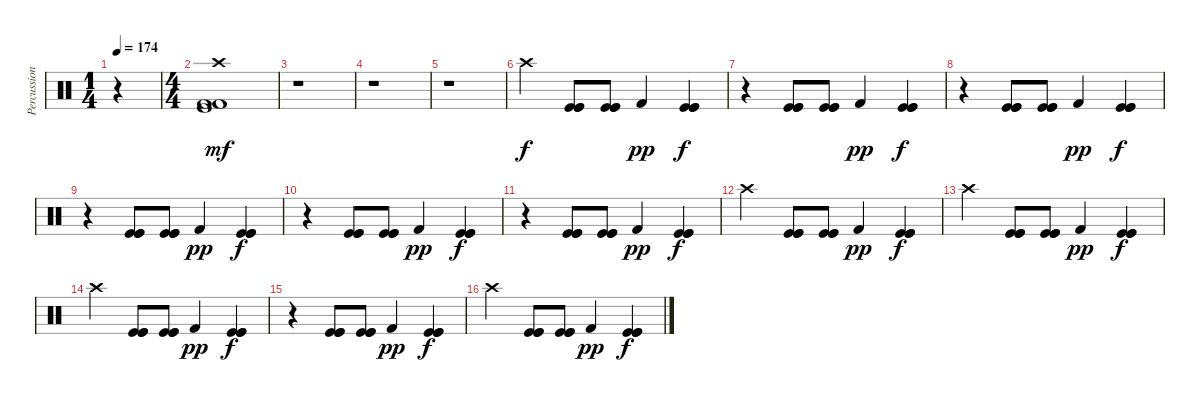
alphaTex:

\track ("Percussions" "Percussion") {instrument percussion}
\staff {score}
\articulation defaults
\ts (1 4)
\tempo 174
\clef neutral
\ks c
r.4{dy mf} |
\ts (4 4)
("Crash high (hit)" "Kick (hit) 2" "Kick (hit) 2" "Kick (hit)").1 |
r.1 |
r.1 |
r.1 |
"Crash high (hit)".4{dy f} ("Kick (hit)" "Kick (hit)" "Kick (hit)").8 ("Kick (hit)" "Kick (hit)" "Kick (hit)").8 "Kick (hit) 2".4{dy pp} ("Kick (hit)" "Kick (hit)" "Kick (hit)").4{dy f} |
r.4 ("Kick (hit)" "Kick (hit)" "Kick (hit)").8 ("Kick (hit)" "Kick (hit)" "Kick (hit)").8 "Kick (hit) 2".4{dy pp} ("Kick (hit)" "Kick (hit)" "Kick (hit)").4{dy f} |
r.4 ("Kick (hit)" "Kick (hit)" "Kick (hit)").8 ("Kick (hit)" "Kick (hit)" "Kick (hit)").8 "Kick (hit) 2".4{dy pp} ("Kick (hit)" "Kick (hit)" "Kick (hit)").4{dy f} |
r.4 ("Kick (hit)" "Kick (hit)" "Kick (hit)").8 ("Kick (hit)" "Kick (hit)" "Kick (hit)").8 "Kick (hit) 2".4{dy pp} ("Kick (hit)" "Kick (hit)" "Kick (hit)").4{dy f} |
r.4 ("Kick (hit)" "Kick (hit)" "Kick (hit)").8 ("Kick (hit)" "Kick (hit)" "Kick (hit)").8 "Kick (hit) 2".4{dy pp} ("Kick (hit)" "Kick (hit)" "Kick (hit)").4{dy f} |
r.4 ("Kick (hit)" "Kick (hit)" "Kick (hit)").8 ("Kick (hit)" "Kick (hit)" "Kick (hit)").8 "Kick (hit) 2".4{dy pp} ("Kick (hit)" "Kick (hit)" "Kick (hit)").4{dy f} |
"Crash high (hit)".4 ("Kick (hit)" "Kick (hit)" "Kick (hit)").8 ("Kick (hit)" "Kick (hit)" "Kick (hit)").8 "Kick (hit) 2".4{dy pp} ("Kick (hit)" "Kick (hit)" "Kick (hit)").4{dy f} |
"Crash high (hit)".4 ("Kick (hit)" "Kick (hit)" "Kick (hit)").8 ("Kick (hit)" "Kick (hit)" "Kick (hit)").8 "Kick (hit) 2".4{dy pp} ("Kick (hit)" "Kick (hit)" "Kick (hit)").4{dy f} |
"Crash high (hit)".4 ("Kick (hit)" "Kick (hit)" "Kick (hit)").8 ("Kick (hit)" "Kick (hit)" "Kick (hit)").8 "Kick (hit) 2".4{dy pp} ("Kick (hit)" "Kick (hit)" "Kick (hit)").4{dy f} |
r.4 ("Kick (hit)" "Kick (hit)" "Kick (hit)").8 ("Kick (hit)" "Kick (hit)" "Kick (hit)").8 "Kick (hit) 2".4{dy pp} ("Kick (hit)" "Kick (hit)" "Kick (hit)").4{dy f} |
"Crash high (hit)".4 ("Kick (hit)" "Kick (hit)" "Kick (hit)").8 ("Kick (hit)" "Kick (hit)" "Kick (hit)").8 "Kick (hit) 2".4{dy pp} ("Kick (hit)" "Kick (hit)" "Kick (hit)").4{dy f}
